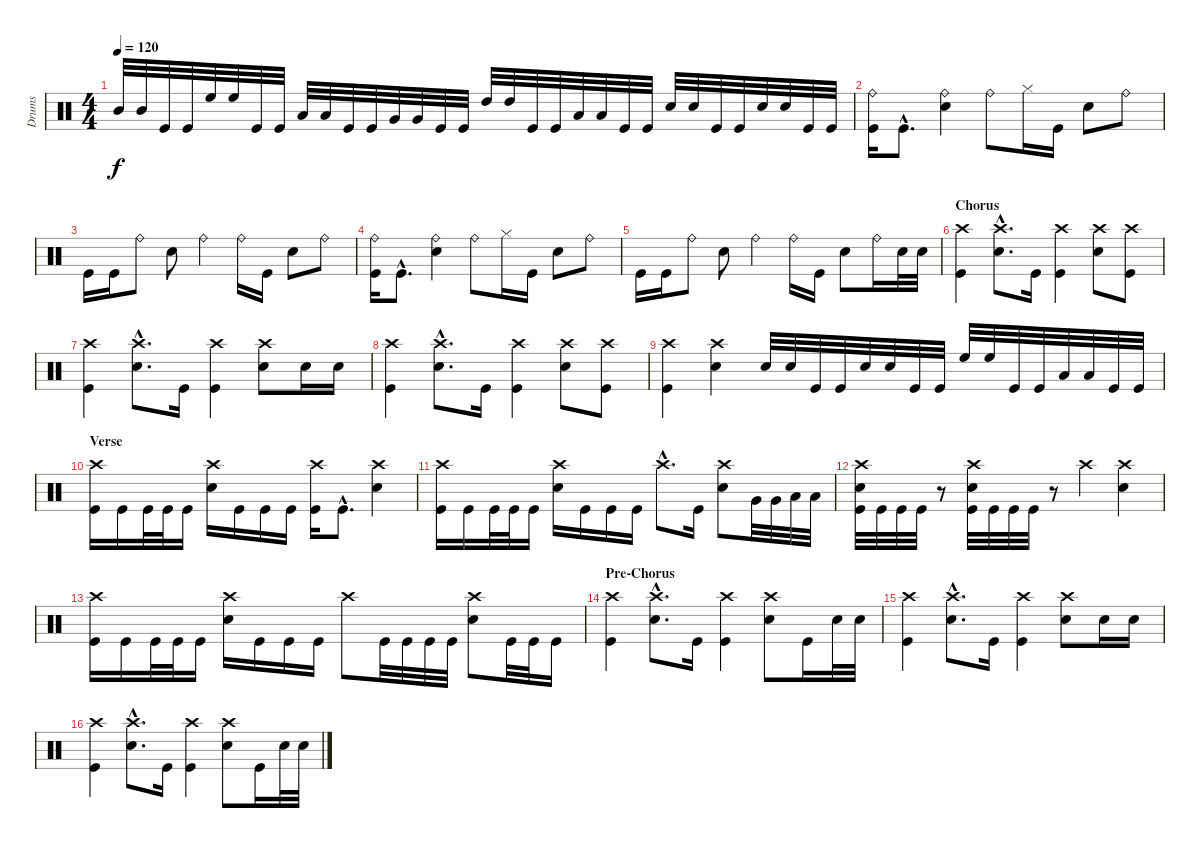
\track ("Drums" "Drums") {instrument percussion}
\staff {score}
\articulation defaults
\ts (4 4)
\tempo 120
\clef neutral
\ks c "Mid Tom (hit)".32{dy f} "Mid Tom (hit)".32 "Kick (hit)".32 "Kick (hit)".32 "High Floor Tom (hit)".32 "High Floor Tom (hit)".32 "Kick (hit)".32 "Kick (hit)".32 "Low Tom (hit)".32 "Low Tom (hit)".32 "Kick (hit)".32 "Kick (hit)".32 "Very Low Tom (hit)".32 "Very Low Tom (hit)".32 "Kick (hit)".32 "Kick (hit)".32 "High Tom (hit)".32 "High Tom (hit)".32 "Kick (hit)".32 "Kick (hit)".32 "Low Floor Tom (hit)".32 "Low Floor Tom (hit)".32 "Kick (hit)".32 "Kick (hit)".32 "Electric Snare (hit)".32 "Electric Snare (hit)".32 "Kick (hit)".32 "Kick (hit)".32 "Electric Snare (hit)".32 "Electric Snare (hit)".32 "Kick (hit)".32 "Kick (hit)".32
|
("Ride (bell)" "Kick (hit)").16 "Kick (hit)"{hac}.8{d} ("Ride (bell)" "Electric Snare (hit)").4 "Ride (bell)".8 "Hi-Hat (closed)".16 "Kick (hit)".16 "Electric Snare (hit)".8 "Ride (bell)".8 |
"Kick (hit)".16 "Kick (hit)".16 "Ride (bell)".8 "Electric Snare (hit)".8 "Ride (bell)".4 "Ride (bell)".16 "Kick (hit)".16 "Electric Snare (hit)".8 "Ride (bell)".8 |
("Ride (bell)" "Kick (hit)").16 "Kick (hit)"{hac}.8{d} ("Ride (bell)" "Electric Snare (hit)").4 "Ride (bell)".8 "Hi-Hat (closed)".16 "Kick (hit)".16 "Electric Snare (hit)".8 "Ride (bell)".8 |
"Kick (hit)".16 "Kick (hit)".16 "Ride (bell)".8 "Electric Snare (hit)".8 "Ride (bell)".4 "Ride (bell)".16 "Kick (hit)".16 "Electric Snare (hit)".8 "Ride (bell)".16 "Electric Snare (hit)".32 "Electric Snare (hit)".32 |
\section ("" "Chorus")
("Crash high (hit)" "Kick (hit)").4 ("Crash high (hit)"{hac} "Electric Snare (hit)"{hac}).8{d} "Kick (hit)".16 ("Crash high (hit)" "Kick (hit)").4 ("Crash high (hit)" "Electric Snare (hit)").8 ("Crash high (hit)" "Kick (hit)").8 |
("Crash high (hit)" "Kick (hit)").4 ("Crash high (hit)"{hac} "Electric Snare (hit)"{hac}).8{d} "Kick (hit)".16 ("Crash high (hit)" "Kick (hit)").4 ("Crash high (hit)" "Electric Snare (hit)").8 "Electric Snare (hit)".16 "Electric Snare (hit)".16 |
("Crash high (hit)" "Kick (hit)").4 ("Crash high (hit)"{hac} "Electric Snare (hit)"{hac}).8{d} "Kick (hit)".16 ("Crash high (hit)" "Kick (hit)").4 ("Crash high (hit)" "Electric Snare (hit)").8 ("Crash high (hit)" "Kick (hit)").8 |
("Crash high (hit)" "Kick (hit)").4 ("Crash high (hit)" "Electric Snare (hit)").4 "Electric Snare (hit)".32 "Electric Snare (hit)".32 "Kick (hit)".32 "Kick (hit)".32 "Electric Snare (hit)".32 "Electric Snare (hit)".32 "Kick (hit)".32 "Kick (hit)".32 "High Floor Tom (hit)".32 "High Floor Tom (hit)".32 "Kick (hit)".32 "Kick (hit)".32 "Low Tom (hit)".32 "Low Tom (hit)".32 "Kick (hit)".32 "Kick (hit)".32 |
\section ("" "Verse")
("Crash high (hit)" "Kick (hit)").16 "Kick (hit)".16 "Kick (hit)".32 "Kick (hit)".32 "Kick (hit)".16 ("Crash high (hit)" "Electric Snare (hit)").16 "Kick (hit)".16 "Kick (hit)".16 "Kick (hit)".16 ("Crash high (hit)" "Kick (hit)").16 "Kick (hit)"{hac}.8{d} ("Crash high (hit)" "Electric Snare (hit)").4 |
("Crash high (hit)" "Kick (hit)").16 "Kick (hit)".16 "Kick (hit)".32 "Kick (hit)".32 "Kick (hit)".16 ("Crash high (hit)" "Electric Snare (hit)").16 "Kick (hit)".16 "Kick (hit)".16 "Kick (hit)".16 "Crash high (hit)"{hac}.8{d} "Kick (hit)".16 ("Crash high (hit)" "Electric Snare (hit)").8 "Very Low Tom (hit)".32 "Very Low Tom (hit)".32 "Low Floor Tom (hit)".32 "Low Floor Tom (hit)".32 |
("Crash high (hit)" "Electric Snare (hit)" "Kick (hit)").32 "Kick (hit)".32 "Kick (hit)".32 "Kick (hit)".32 r.8 ("Crash high (hit)" "Electric Snare (hit)" "Kick (hit)").32 "Kick (hit)".32 "Kick (hit)".32 "Kick (hit)".32 r.8 "Crash high (hit)".4 ("Crash high (hit)" "Electric Snare (hit)").4 |
("Crash high (hit)" "Kick (hit)").16 "Kick (hit)".16 "Kick (hit)".32 "Kick (hit)".32 "Kick (hit)".16 ("Crash high (hit)" "Electric Snare (hit)").16 "Kick (hit)".16 "Kick (hit)".16 "Kick (hit)".16 "Crash high (hit)".8 "Kick (hit)".32 "Kick (hit)".32 "Kick (hit)".32 "Kick (hit)".32 ("Crash high (hit)" "Electric Snare (hit)").8 "Kick (hit)".32 "Kick (hit)".32 "Kick (hit)".16 |
\section ("" "Pre-Chorus")
("Crash high (hit)" "Kick (hit)").4 ("Crash high (hit)"{hac} "Electric Snare (hit)"{hac}).8{d} "Kick (hit)".16 ("Crash high (hit)" "Kick (hit)").4 ("Crash high (hit)" "Electric Snare (hit)").8 "Kick (hit)".16 "Electric Snare (hit)".32 "Electric Snare (hit)".32 |
("Crash high (hit)" "Kick (hit)").4 ("Crash high (hit)"{hac} "Electric Snare (hit)"{hac}).8{d} "Kick (hit)".16 ("Crash high (hit)" "Kick (hit)").4 ("Crash high (hit)" "Electric Snare (hit)").8 "Electric Snare (hit)".16 "Electric Snare (hit)".16 |
("Crash high (hit)" "Kick (hit)").4 ("Crash high (hit)"{hac} "Electric Snare (hit)"{hac}).8{d} "Kick (hit)".16 ("Crash high (hit)" "Kick (hit)").4 ("Crash high (hit)" "Electric Snare (hit)").8 "Kick (hit)".16 "Electric Snare (hit)".32 "Electric Snare (hit)".32
